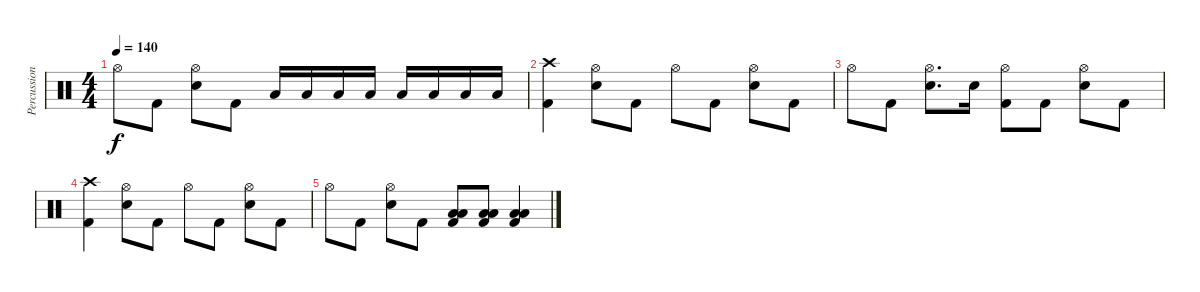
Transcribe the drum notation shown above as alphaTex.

\track ("Percussion" "Percussion") {instrument percussion}
\staff {score}
\articulation defaults
\ts (4 4)
\tempo 140
\clef neutral
\ks c "Hi-Hat (open)".8{dy f} "Kick (hit) 2".8
("Hi-Hat (open)" "Electric Snare (hit)").8 "Kick (hit) 2".8 "Low Tom (hit)".16 "Low Tom (hit)".16 "Low Tom (hit)".16 "Low Tom (hit)".16 "Low Floor Tom (hit)".16 "Low Floor Tom (hit)".16 "Low Floor Tom (hit)".16 "Low Floor Tom (hit)".16 |
("Crash high (hit)" "Kick (hit) 2").4 ("Hi-Hat (open)" "Electric Snare (hit)").8 "Kick (hit) 2".8 "Hi-Hat (open)".8 "Kick (hit) 2".8 ("Hi-Hat (open)" "Electric Snare (hit)").8 "Kick (hit) 2".8 |
"Hi-Hat (open)".8 "Kick (hit) 2".8 ("Hi-Hat (open)" "Electric Snare (hit)").8{d} "Electric Snare (hit)".16 ("Hi-Hat (open)" "Kick (hit) 2").8 "Kick (hit) 2".8 ("Hi-Hat (open)" "Electric Snare (hit)").8 "Kick (hit) 2".8 |
("Crash high (hit)" "Kick (hit) 2").4 ("Hi-Hat (open)" "Electric Snare (hit)").8 "Kick (hit) 2".8 "Hi-Hat (open)".8 "Kick (hit) 2".8 ("Hi-Hat (open)" "Electric Snare (hit)").8 "Kick (hit) 2".8 |
"Hi-Hat (open)".8 "Kick (hit) 2".8 ("Hi-Hat (open)" "Electric Snare (hit)").8 "Kick (hit) 2".8 ("Low Tom (hit)" "Low Floor Tom (hit)" "Kick (hit) 2").8 ("Low Tom (hit)" "Low Floor Tom (hit)" "Kick (hit) 2").8 ("Low Tom (hit)" "Low Floor Tom (hit)" "Kick (hit) 2").4
